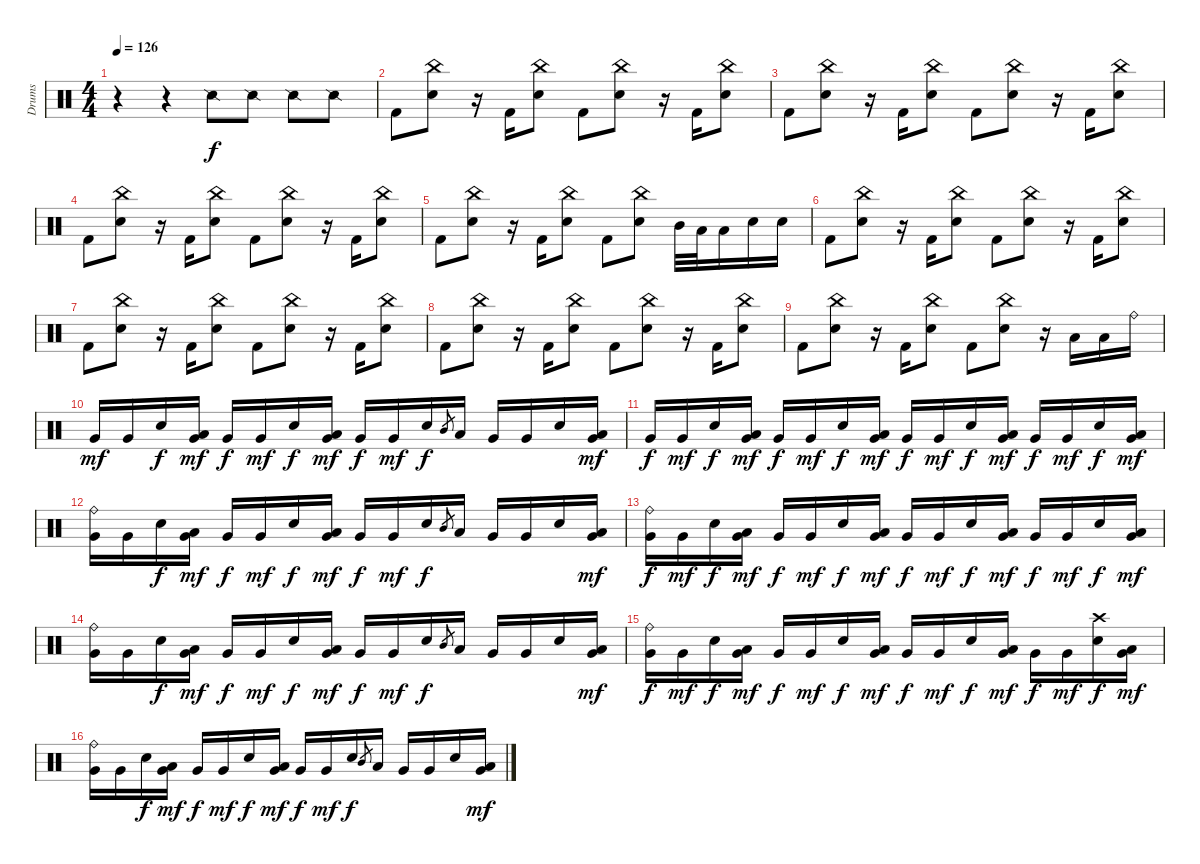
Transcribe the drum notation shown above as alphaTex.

\track ("Drums" "Drums") {instrument percussion}
\staff {score}
\articulation defaults
\ts (4 4)
\tempo 126
\clef neutral
\ks c
r.4{dy f} r.4 "Snare (side stick) 2".8 "Snare (side stick) 2".8 "Snare (side stick) 2".8 "Snare (side stick) 2".8 |
"Kick (hit) 2".8 ("China (hit)" "Snare (hit) 2").8 r.16 "Kick (hit) 2".16 ("China (hit)" "Snare (hit) 2").8 "Kick (hit) 2".8 ("China (hit)" "Snare (hit) 2").8 r.16 "Kick (hit) 2".16 ("China (hit)" "Snare (hit) 2").8 |
"Kick (hit) 2".8 ("China (hit)" "Snare (hit) 2").8 r.16 "Kick (hit) 2".16 ("China (hit)" "Snare (hit) 2").8 "Kick (hit) 2".8 ("China (hit)" "Snare (hit) 2").8 r.16 "Kick (hit) 2".16 ("China (hit)" "Snare (hit) 2").8 |
"Kick (hit) 2".8 ("China (hit)" "Snare (hit) 2").8 r.16 "Kick (hit) 2".16 ("China (hit)" "Snare (hit) 2").8 "Kick (hit) 2".8 ("China (hit)" "Snare (hit) 2").8 r.16 "Kick (hit) 2".16 ("China (hit)" "Snare (hit) 2").8 |
"Kick (hit) 2".8 ("China (hit)" "Snare (hit) 2").8 r.16 "Kick (hit) 2".16 ("China (hit)" "Snare (hit) 2").8 "Kick (hit) 2".8 ("China (hit)" "Snare (hit) 2").8 "Mid Tom (hit)".32 "Low Tom (hit)".32 "Low Tom (hit)".16 "Snare (hit) 2".16 "Snare (hit) 2".16 |
"Kick (hit) 2".8 ("China (hit)" "Snare (hit) 2").8 r.16 "Kick (hit) 2".16 ("China (hit)" "Snare (hit) 2").8 "Kick (hit) 2".8 ("China (hit)" "Snare (hit) 2").8 r.16 "Kick (hit) 2".16 ("China (hit)" "Snare (hit) 2").8 |
"Kick (hit) 2".8 ("China (hit)" "Snare (hit) 2").8 r.16 "Kick (hit) 2".16 ("China (hit)" "Snare (hit) 2").8 "Kick (hit) 2".8 ("China (hit)" "Snare (hit) 2").8 r.16 "Kick (hit) 2".16 ("China (hit)" "Snare (hit) 2").8 |
"Kick (hit) 2".8 ("China (hit)" "Snare (hit) 2").8 r.16 "Kick (hit) 2".16 ("China (hit)" "Snare (hit) 2").8 "Kick (hit) 2".8 ("China (hit)" "Snare (hit) 2").8 r.16 "Kick (hit) 2".16 ("China (hit)" "Snare (hit) 2").8 |
"Kick (hit) 2".8 ("China (hit)" "Snare (hit) 2").8 r.16 "Kick (hit) 2".16 ("China (hit)" "Snare (hit) 2").8 "Kick (hit) 2".8 ("China (hit)" "Snare (hit) 2").8 r.16 "Low Tom (hit)".16 "Low Tom (hit)".16 "Ride (bell)".16 |
"Very Low Tom (hit)".16{dy mf} "Very Low Tom (hit)".16 "Snare (hit) 2".16{dy f} ("Low Tom (hit)" "Very Low Tom (hit)").16{dy mf} "Very Low Tom (hit)".16{dy f} "Very Low Tom (hit)".16{dy mf} "Snare (hit) 2".16{dy f} ("Low Tom (hit)" "Very Low Tom (hit)").16{dy mf} "Very Low Tom (hit)".16{dy f} "Very Low Tom (hit)".16{dy mf} "Snare (hit) 2".16{dy f} "Mid Tom (hit)".8{gr} "Low Tom (hit)".16 "Very Low Tom (hit)".16 "Very Low Tom (hit)".16 "Snare (hit) 2".16 ("Low Tom (hit)" "Very Low Tom (hit)").16{dy mf} |
"Very Low Tom (hit)".16{dy f} "Very Low Tom (hit)".16{dy mf} "Snare (hit) 2".16{dy f} ("Low Tom (hit)" "Very Low Tom (hit)").16{dy mf} "Very Low Tom (hit)".16{dy f} "Very Low Tom (hit)".16{dy mf} "Snare (hit) 2".16{dy f} ("Low Tom (hit)" "Very Low Tom (hit)").16{dy mf} "Very Low Tom (hit)".16{dy f} "Very Low Tom (hit)".16{dy mf} "Snare (hit) 2".16{dy f} ("Low Tom (hit)" "Very Low Tom (hit)").16{dy mf} "Very Low Tom (hit)".16{dy f} "Very Low Tom (hit)".16{dy mf} "Snare (hit) 2".16{dy f} ("Low Tom (hit)" "Very Low Tom (hit)").16{dy mf} |
("Ride (bell)" "Very Low Tom (hit)").16 "Very Low Tom (hit)".16 "Snare (hit) 2".16{dy f} ("Low Tom (hit)" "Very Low Tom (hit)").16{dy mf} "Very Low Tom (hit)".16{dy f} "Very Low Tom (hit)".16{dy mf} "Snare (hit) 2".16{dy f} ("Low Tom (hit)" "Very Low Tom (hit)").16{dy mf} "Very Low Tom (hit)".16{dy f} "Very Low Tom (hit)".16{dy mf} "Snare (hit) 2".16{dy f} "Mid Tom (hit)".8{gr} "Low Tom (hit)".16 "Very Low Tom (hit)".16 "Very Low Tom (hit)".16 "Snare (hit) 2".16 ("Low Tom (hit)" "Very Low Tom (hit)").16{dy mf} |
("Ride (bell)" "Very Low Tom (hit)").16{dy f} "Very Low Tom (hit)".16{dy mf} "Snare (hit) 2".16{dy f} ("Low Tom (hit)" "Very Low Tom (hit)").16{dy mf} "Very Low Tom (hit)".16{dy f} "Very Low Tom (hit)".16{dy mf} "Snare (hit) 2".16{dy f} ("Low Tom (hit)" "Very Low Tom (hit)").16{dy mf} "Very Low Tom (hit)".16{dy f} "Very Low Tom (hit)".16{dy mf} "Snare (hit) 2".16{dy f} ("Low Tom (hit)" "Very Low Tom (hit)").16{dy mf} "Very Low Tom (hit)".16{dy f} "Very Low Tom (hit)".16{dy mf} "Snare (hit) 2".16{dy f} ("Low Tom (hit)" "Very Low Tom (hit)").16{dy mf} |
("Ride (bell)" "Very Low Tom (hit)").16 "Very Low Tom (hit)".16 "Snare (hit) 2".16{dy f} ("Low Tom (hit)" "Very Low Tom (hit)").16{dy mf} "Very Low Tom (hit)".16{dy f} "Very Low Tom (hit)".16{dy mf} "Snare (hit) 2".16{dy f} ("Low Tom (hit)" "Very Low Tom (hit)").16{dy mf} "Very Low Tom (hit)".16{dy f} "Very Low Tom (hit)".16{dy mf} "Snare (hit) 2".16{dy f} "Mid Tom (hit)".8{gr} "Low Tom (hit)".16 "Very Low Tom (hit)".16 "Very Low Tom (hit)".16 "Snare (hit) 2".16 ("Low Tom (hit)" "Very Low Tom (hit)").16{dy mf} |
("Ride (bell)" "Very Low Tom (hit)").16{dy f} "Very Low Tom (hit)".16{dy mf} "Snare (hit) 2".16{dy f} ("Low Tom (hit)" "Very Low Tom (hit)").16{dy mf} "Very Low Tom (hit)".16{dy f} "Very Low Tom (hit)".16{dy mf} "Snare (hit) 2".16{dy f} ("Low Tom (hit)" "Very Low Tom (hit)").16{dy mf} "Very Low Tom (hit)".16{dy f} "Very Low Tom (hit)".16{dy mf} "Snare (hit) 2".16{dy f} ("Low Tom (hit)" "Very Low Tom (hit)").16{dy mf} "Very Low Tom (hit)".16{dy f} "Very Low Tom (hit)".16{dy mf} ("Crash high (hit)" "Snare (hit) 2").16{dy f} ("Low Tom (hit)" "Very Low Tom (hit)").16{dy mf} |
("Ride (bell)" "Very Low Tom (hit)").16 "Very Low Tom (hit)".16 "Snare (hit) 2".16{dy f} ("Low Tom (hit)" "Very Low Tom (hit)").16{dy mf} "Very Low Tom (hit)".16{dy f} "Very Low Tom (hit)".16{dy mf} "Snare (hit) 2".16{dy f} ("Low Tom (hit)" "Very Low Tom (hit)").16{dy mf} "Very Low Tom (hit)".16{dy f} "Very Low Tom (hit)".16{dy mf} "Snare (hit) 2".16{dy f} "Mid Tom (hit)".8{gr} "Low Tom (hit)".16 "Very Low Tom (hit)".16 "Very Low Tom (hit)".16 "Snare (hit) 2".16 ("Low Tom (hit)" "Very Low Tom (hit)").16{dy mf}
